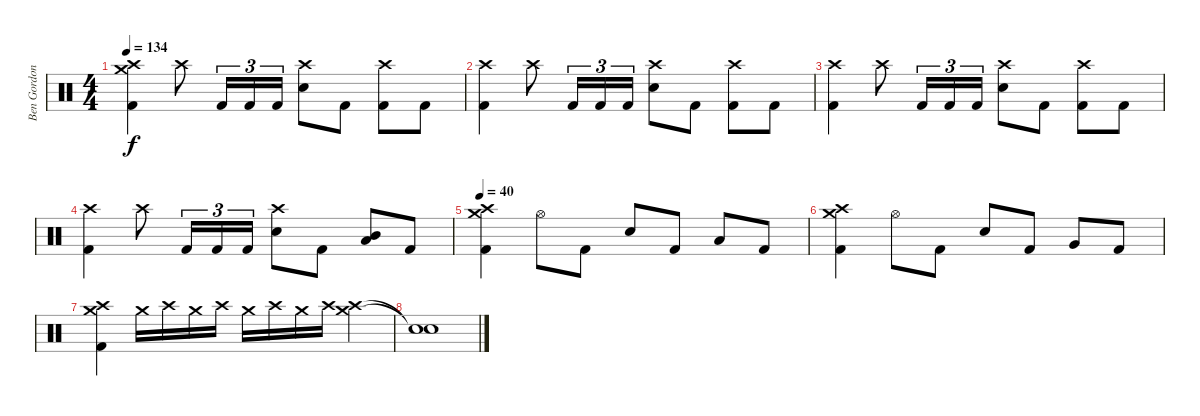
\track ("Ben Gordon" "Ben Gordon") {instrument percussion}
\staff {score}
\articulation defaults
\ts (4 4)
\tempo 134
\clef neutral
\ks c
("Crash high (hit)" "Crash medium (hit)" "Kick (hit) 2").4{dy f} "Crash high (hit)".8 "Kick (hit) 2".16{tu (3 2)} "Kick (hit) 2".16{tu (3 2)} "Kick (hit) 2".16{tu (3 2)} ("Crash high (hit)" "Electric Snare (hit)").8 "Kick (hit) 2".8 ("Crash high (hit)" "Kick (hit) 2").8 "Kick (hit) 2".8 |
("Crash high (hit)" "Kick (hit) 2").4 "Crash high (hit)".8 "Kick (hit) 2".16{tu (3 2)} "Kick (hit) 2".16{tu (3 2)} "Kick (hit) 2".16{tu (3 2)} ("Crash high (hit)" "Electric Snare (hit)").8 "Kick (hit) 2".8 ("Crash high (hit)" "Kick (hit) 2").8 "Kick (hit) 2".8 |
("Crash high (hit)" "Kick (hit) 2").4 "Crash high (hit)".8 "Kick (hit) 2".16{tu (3 2)} "Kick (hit) 2".16{tu (3 2)} "Kick (hit) 2".16{tu (3 2)} ("Crash high (hit)" "Electric Snare (hit)").8 "Kick (hit) 2".8 ("Crash high (hit)" "Kick (hit) 2").8 "Kick (hit) 2".8 |
("Crash high (hit)" "Kick (hit) 2").4 "Crash high (hit)".8 "Kick (hit) 2".16{tu (3 2)} "Kick (hit) 2".16{tu (3 2)} "Kick (hit) 2".16{tu (3 2)} ("Crash high (hit)" "Electric Snare (hit)").8 "Kick (hit) 2".8 ("Low Tom (hit)" "Mid Tom (hit)").8 "Kick (hit) 2".8 |
\tempo 40
("Crash medium (hit)" "Crash high (hit)" "Kick (hit) 2").4 "Hi-Hat (open)".8 "Kick (hit) 2".8 "Electric Snare (hit)".8 "Kick (hit) 2".8 "Low Tom (hit)".8 "Kick (hit) 2".8 |
("Crash medium (hit)" "Crash high (hit)" "Kick (hit) 2").4 "Hi-Hat (open)".8 "Kick (hit) 2".8 "Electric Snare (hit)".8 "Kick (hit) 2".8 "Very Low Tom (hit)".8 "Kick (hit) 2".8 |
("Crash medium (hit)" "Crash high (hit)" "Kick (hit) 2").4 "Crash medium (hit)".16 "Crash high (hit)".16 "Crash medium (hit)".16 "Crash high (hit)".16 "Crash medium (hit)".16 "Crash high (hit)".16 "Crash medium (hit)".16 "Crash high (hit)".16 ("Crash high (hit)" "Crash medium (hit)").4 |
("Snare (hit)"{t} "Snare (hit)"{t}).1
